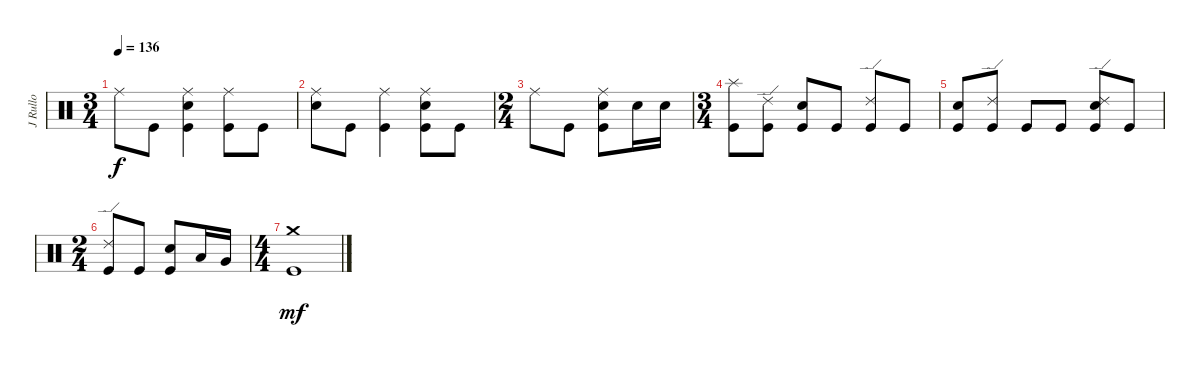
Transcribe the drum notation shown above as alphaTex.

\track ("J Rullo" "J Rullo") {instrument percussion}
\staff {score}
\articulation defaults
\ts (3 4)
\tempo 136
\clef neutral
\ks c "Ride (middle)".8{dy f} "Kick (hit)".8
("Ride (middle)" "Electric Snare (hit)" "Kick (hit)").4 ("Ride (middle)" "Kick (hit)").8 "Kick (hit)".8 |
("Ride (middle)" "Electric Snare (hit)").8 "Kick (hit)".8 ("Ride (middle)" "Kick (hit)").4 ("Ride (middle)" "Electric Snare (hit)" "Kick (hit)").8 "Kick (hit)".8 |
\ts (2 4)
"Ride (middle)".8 "Kick (hit)".8 ("Ride (middle)" "Electric Snare (hit)" "Kick (hit)").8 "Electric Snare (hit)".16 "Electric Snare (hit)".16 |
\ts (3 4)
("Splash (hit)" "Kick (hit)").8 ("Ride (edge) 2" "Kick (hit)").8 ("Electric Snare (hit)" "Kick (hit)").8 "Kick (hit)".8 ("Ride (edge) 2" "Kick (hit)").8 "Kick (hit)".8 |
("Electric Snare (hit)" "Kick (hit)").8 ("Ride (edge) 2" "Kick (hit)").8 "Kick (hit)".8 "Kick (hit)".8 ("Ride (edge) 2" "Electric Snare (hit)" "Kick (hit)").8 "Kick (hit)".8 |
\ts (2 4)
("Ride (edge) 2" "Kick (hit)").8 "Kick (hit)".8 ("Electric Snare (hit)" "Kick (hit)").8 "Low Tom (hit)".16 "Very Low Tom (hit)".16 |
\ts (4 4)
("Crash medium (hit)" "Kick (hit)").1{dy mf}
